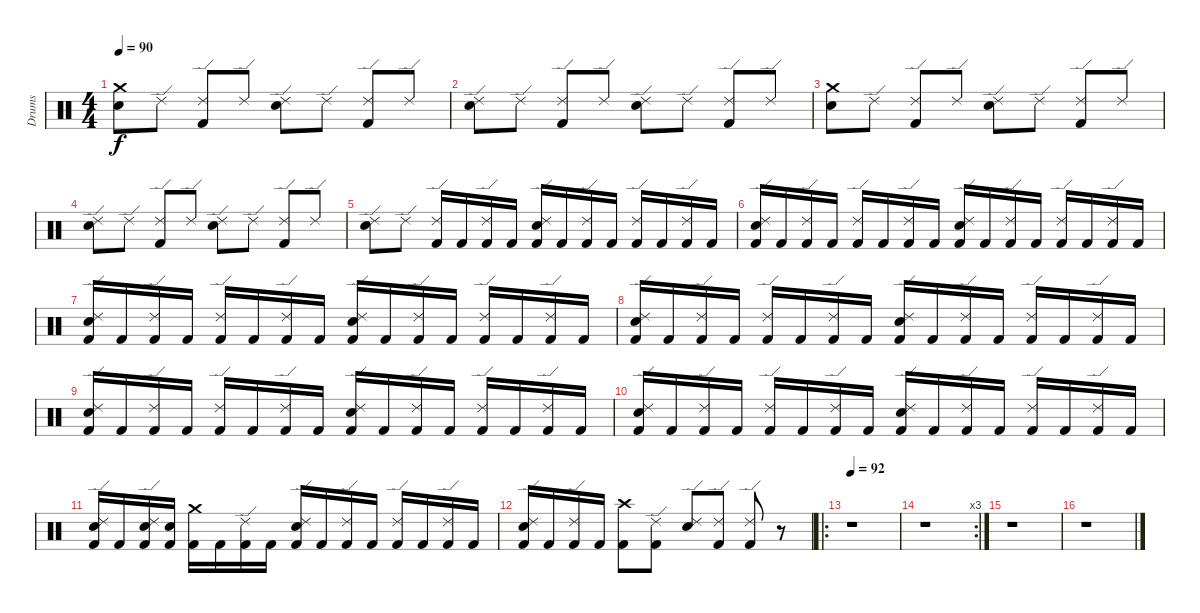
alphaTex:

\track ("Drums" "Drums") {instrument percussion}
\staff {score}
\articulation defaults
\ts (4 4)
\tempo 90
\clef neutral
\ks c
("Crash medium (hit)" "Electric Snare (hit)").8{dy f} "Ride (edge) 2".8 ("Ride (edge) 2" "Kick (hit) 2").8 "Ride (edge) 2".8 ("Ride (edge) 2" "Electric Snare (hit)").8 "Ride (edge) 2".8 ("Ride (edge) 2" "Kick (hit) 2").8 "Ride (edge) 2".8 |
("Ride (edge) 2" "Electric Snare (hit)").8 "Ride (edge) 2".8 ("Ride (edge) 2" "Kick (hit) 2").8 "Ride (edge) 2".8 ("Ride (edge) 2" "Electric Snare (hit)").8 "Ride (edge) 2".8 ("Ride (edge) 2" "Kick (hit) 2").8 "Ride (edge) 2".8 |
("Crash medium (hit)" "Electric Snare (hit)").8 "Ride (edge) 2".8 ("Ride (edge) 2" "Kick (hit) 2").8 "Ride (edge) 2".8 ("Ride (edge) 2" "Electric Snare (hit)").8 "Ride (edge) 2".8 ("Ride (edge) 2" "Kick (hit) 2").8 "Ride (edge) 2".8 |
("Ride (edge) 2" "Electric Snare (hit)").8 "Ride (edge) 2".8 ("Ride (edge) 2" "Kick (hit) 2").8 "Ride (edge) 2".8 ("Ride (edge) 2" "Electric Snare (hit)").8 "Ride (edge) 2".8 ("Ride (edge) 2" "Kick (hit) 2").8 "Ride (edge) 2".8 |
("Ride (edge) 2" "Electric Snare (hit)").8 "Ride (edge) 2".8 ("Ride (edge) 2" "Kick (hit) 2").16 "Kick (hit) 2".16 ("Ride (edge) 2" "Kick (hit) 2").16 "Kick (hit) 2".16 ("Ride (edge) 2" "Electric Snare (hit)" "Kick (hit) 2").16 "Kick (hit) 2".16 ("Ride (edge) 2" "Kick (hit) 2").16 "Kick (hit) 2".16 ("Ride (edge) 2" "Kick (hit) 2").16 "Kick (hit) 2".16 ("Ride (edge) 2" "Kick (hit) 2").16 "Kick (hit) 2".16 |
("Ride (edge) 2" "Electric Snare (hit)" "Kick (hit) 2").16 "Kick (hit) 2".16 ("Ride (edge) 2" "Kick (hit) 2").16 "Kick (hit) 2".16 ("Ride (edge) 2" "Kick (hit) 2").16 "Kick (hit) 2".16 ("Ride (edge) 2" "Kick (hit) 2").16 "Kick (hit) 2".16 ("Ride (edge) 2" "Electric Snare (hit)" "Kick (hit) 2").16 "Kick (hit) 2".16 ("Ride (edge) 2" "Kick (hit) 2").16 "Kick (hit) 2".16 ("Ride (edge) 2" "Kick (hit) 2").16 "Kick (hit) 2".16 ("Ride (edge) 2" "Kick (hit) 2").16 "Kick (hit) 2".16 |
("Ride (edge) 2" "Electric Snare (hit)" "Kick (hit) 2").16 "Kick (hit) 2".16 ("Ride (edge) 2" "Kick (hit) 2").16 "Kick (hit) 2".16 ("Ride (edge) 2" "Kick (hit) 2").16 "Kick (hit) 2".16 ("Ride (edge) 2" "Kick (hit) 2").16 "Kick (hit) 2".16 ("Ride (edge) 2" "Electric Snare (hit)" "Kick (hit) 2").16 "Kick (hit) 2".16 ("Ride (edge) 2" "Kick (hit) 2").16 "Kick (hit) 2".16 ("Ride (edge) 2" "Kick (hit) 2").16 "Kick (hit) 2".16 ("Ride (edge) 2" "Kick (hit) 2").16 "Kick (hit) 2".16 |
("Ride (edge) 2" "Electric Snare (hit)" "Kick (hit) 2").16 "Kick (hit) 2".16 ("Ride (edge) 2" "Kick (hit) 2").16 "Kick (hit) 2".16 ("Ride (edge) 2" "Kick (hit) 2").16 "Kick (hit) 2".16 ("Ride (edge) 2" "Kick (hit) 2").16 "Kick (hit) 2".16 ("Ride (edge) 2" "Electric Snare (hit)" "Kick (hit) 2").16 "Kick (hit) 2".16 ("Ride (edge) 2" "Kick (hit) 2").16 "Kick (hit) 2".16 ("Ride (edge) 2" "Kick (hit) 2").16 "Kick (hit) 2".16 ("Ride (edge) 2" "Kick (hit) 2").16 "Kick (hit) 2".16 |
("Ride (edge) 2" "Electric Snare (hit)" "Kick (hit) 2").16 "Kick (hit) 2".16 ("Ride (edge) 2" "Kick (hit) 2").16 "Kick (hit) 2".16 ("Ride (edge) 2" "Kick (hit) 2").16 "Kick (hit) 2".16 ("Ride (edge) 2" "Kick (hit) 2").16 "Kick (hit) 2".16 ("Ride (edge) 2" "Electric Snare (hit)" "Kick (hit) 2").16 "Kick (hit) 2".16 ("Ride (edge) 2" "Kick (hit) 2").16 "Kick (hit) 2".16 ("Ride (edge) 2" "Kick (hit) 2").16 "Kick (hit) 2".16 ("Ride (edge) 2" "Kick (hit) 2").16 "Kick (hit) 2".16 |
("Ride (edge) 2" "Electric Snare (hit)" "Kick (hit) 2").16 "Kick (hit) 2".16 ("Ride (edge) 2" "Kick (hit) 2").16 "Kick (hit) 2".16 ("Ride (edge) 2" "Kick (hit) 2").16 "Kick (hit) 2".16 ("Ride (edge) 2" "Kick (hit) 2").16 "Kick (hit) 2".16 ("Ride (edge) 2" "Electric Snare (hit)" "Kick (hit) 2").16 "Kick (hit) 2".16 ("Ride (edge) 2" "Kick (hit) 2").16 "Kick (hit) 2".16 ("Ride (edge) 2" "Kick (hit) 2").16 "Kick (hit) 2".16 ("Ride (edge) 2" "Kick (hit) 2").16 "Kick (hit) 2".16 |
("Kick (hit) 2" "Electric Snare (hit)" "Ride (edge) 2").16 "Kick (hit) 2".16 ("Kick (hit) 2" "Electric Snare (hit)" "Ride (edge) 2").16 ("Kick (hit) 2" "Electric Snare (hit)").16 ("Kick (hit) 2" "Crash medium (hit)").16 "Kick (hit) 2".16 ("Kick (hit) 2" "Ride (edge) 2").16 "Kick (hit) 2".16 ("Kick (hit) 2" "Electric Snare (hit)" "Ride (edge) 2").16 "Kick (hit) 2".16 ("Kick (hit) 2" "Ride (edge) 2").16 "Kick (hit) 2".16 ("Kick (hit) 2" "Ride (edge) 2").16 "Kick (hit) 2".16 ("Kick (hit) 2" "Ride (edge) 2").16 "Kick (hit) 2".16 |
("Kick (hit) 2" "Electric Snare (hit)" "Ride (edge) 2").16 "Kick (hit) 2".16 ("Kick (hit) 2" "Ride (edge) 2").16 "Kick (hit) 2".16 ("Kick (hit) 2" "Crash high (hit)").8 ("Kick (hit) 2" "Ride (edge) 2").8 ("Electric Snare (hit)" "Ride (edge) 2").8 ("Kick (hit) 2" "Ride (edge) 2").8 ("Kick (hit) 2" "Ride (edge) 2").8 r.8 |
\ro
\tempo 92
r.1 |
\rc 3
r.1 |
r.1 |
r.1
